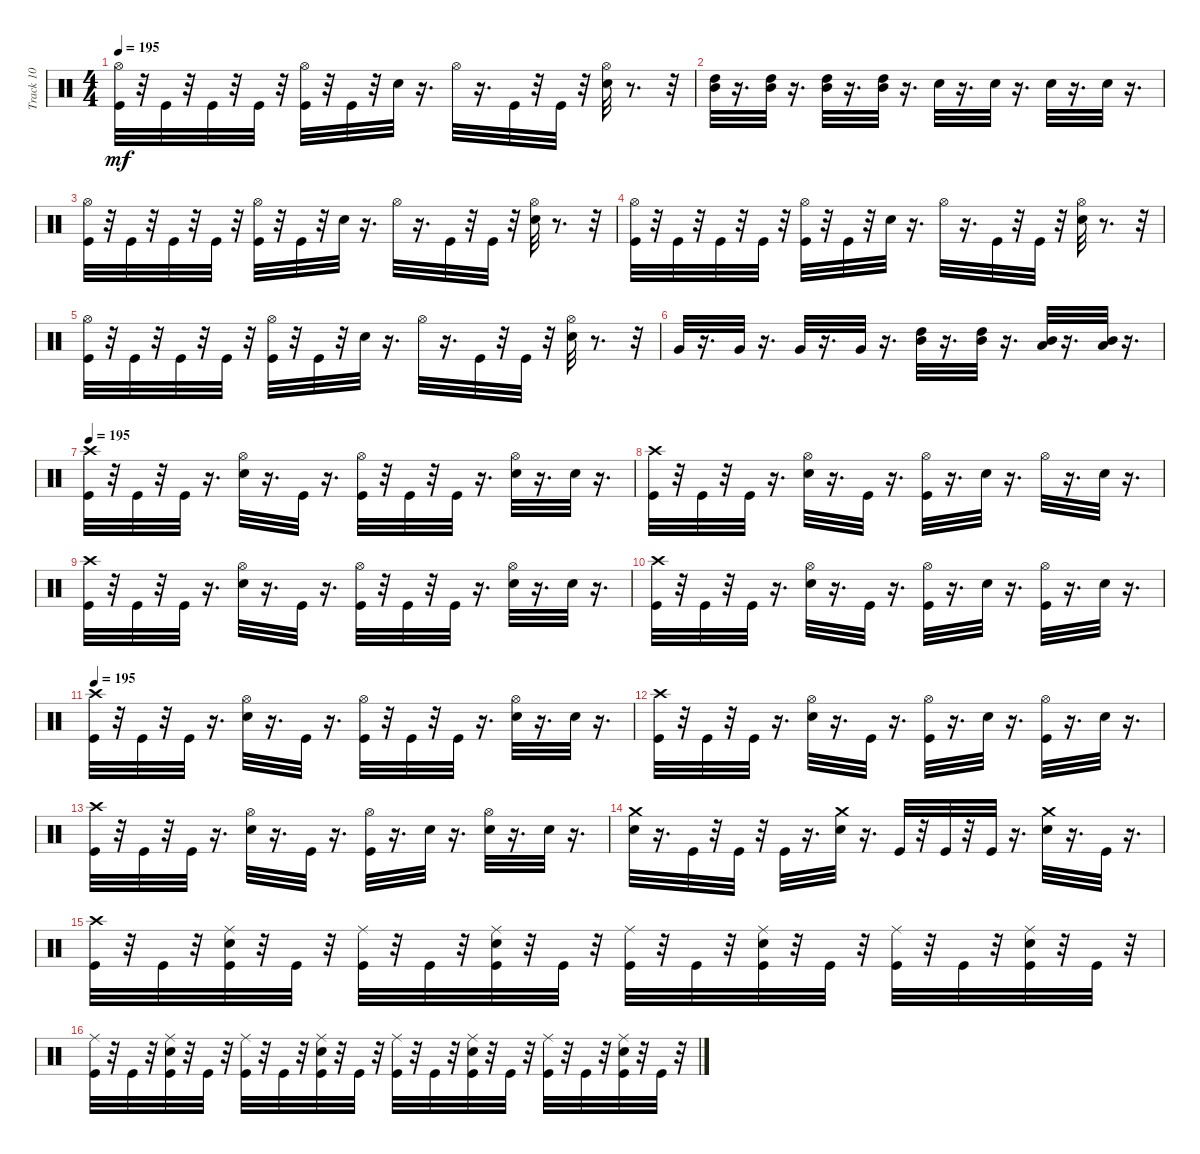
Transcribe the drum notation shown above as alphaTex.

\track ("Track 10" "Track 10") {instrument percussion}
\staff {score}
\articulation defaults
\ts (4 4)
\tempo 195
\clef neutral
\ks c
("Kick (hit)" "Hi-Hat (open)").32{dy mf} r.32 "Kick (hit)".32 r.32 "Kick (hit)".32 r.32 "Kick (hit)".32 r.32 ("Kick (hit)" "Hi-Hat (open)").32 r.32 "Kick (hit)".32 r.32 "Electric Snare (hit)".32 r.16{d} "Hi-Hat (open)".32 r.16{d} "Kick (hit)".32 r.32 "Kick (hit)".32 r.32 ("Electric Snare (hit)" "Hi-Hat (open)").32 r.8{d} r.32 |
("Mid Tom (hit)" "High Tom (hit)").32 r.16{d} ("Mid Tom (hit)" "High Tom (hit)").32 r.16{d} ("High Tom (hit)" "Mid Tom (hit)").32 r.16{d} ("High Tom (hit)" "Mid Tom (hit)").32 r.16{d} "Electric Snare (hit)".32 r.16{d} "Electric Snare (hit)".32 r.16{d} "Electric Snare (hit)".32 r.16{d} "Electric Snare (hit)".32 r.16{d} |
("Kick (hit)" "Hi-Hat (open)").32 r.32 "Kick (hit)".32 r.32 "Kick (hit)".32 r.32 "Kick (hit)".32 r.32 ("Kick (hit)" "Hi-Hat (open)").32 r.32 "Kick (hit)".32 r.32 "Electric Snare (hit)".32 r.16{d} "Hi-Hat (open)".32 r.16{d} "Kick (hit)".32 r.32 "Kick (hit)".32 r.32 ("Hi-Hat (open)" "Electric Snare (hit)").32 r.8{d} r.32 |
("Kick (hit)" "Hi-Hat (open)").32 r.32 "Kick (hit)".32 r.32 "Kick (hit)".32 r.32 "Kick (hit)".32 r.32 ("Kick (hit)" "Hi-Hat (open)").32 r.32 "Kick (hit)".32 r.32 "Electric Snare (hit)".32 r.16{d} "Hi-Hat (open)".32 r.16{d} "Kick (hit)".32 r.32 "Kick (hit)".32 r.32 ("Electric Snare (hit)" "Hi-Hat (open)").32 r.8{d} r.32 |
("Kick (hit)" "Hi-Hat (open)").32 r.32 "Kick (hit)".32 r.32 "Kick (hit)".32 r.32 "Kick (hit)".32 r.32 ("Kick (hit)" "Hi-Hat (open)").32 r.32 "Kick (hit)".32 r.32 "Electric Snare (hit)".32 r.16{d} "Hi-Hat (open)".32 r.16{d} "Kick (hit)".32 r.32 "Kick (hit)".32 r.32 ("Electric Snare (hit)" "Hi-Hat (open)").32 r.8{d} r.32 |
"Very Low Tom (hit)".32 r.16{d} "Very Low Tom (hit)".32 r.16{d} "Very Low Tom (hit)".32 r.16{d} "Very Low Tom (hit)".32 r.16{d} ("Mid Tom (hit)" "High Tom (hit)").32 r.16{d} ("Mid Tom (hit)" "High Tom (hit)").32 r.16{d} ("Low Tom (hit)" "Mid Tom (hit)").32 r.16{d} ("Low Tom (hit)" "Mid Tom (hit)").32 r.16{d} |
\tempo 195
("Kick (hit)" "Crash high (hit)").32 r.32 "Kick (hit)".32 r.32 "Kick (hit)".32 r.16{d} ("Hi-Hat (open)" "Electric Snare (hit)").32 r.16{d} "Kick (hit)".32 r.16{d} ("Kick (hit)" "Hi-Hat (open)").32 r.32 "Kick (hit)".32 r.32 "Kick (hit)".32 r.16{d} ("Hi-Hat (open)" "Electric Snare (hit)").32 r.16{d} "Electric Snare (hit)".32 r.16{d} |
("Crash high (hit)" "Kick (hit)").32 r.32 "Kick (hit)".32 r.32 "Kick (hit)".32 r.16{d} ("Electric Snare (hit)" "Hi-Hat (open)").32 r.16{d} "Kick (hit)".32 r.16{d} ("Kick (hit)" "Hi-Hat (open)").32 r.16{d} "Electric Snare (hit)".32 r.16{d} "Hi-Hat (open)".32 r.16{d} "Electric Snare (hit)".32 r.16{d} |
("Crash high (hit)" "Kick (hit)").32 r.32 "Kick (hit)".32 r.32 "Kick (hit)".32 r.16{d} ("Electric Snare (hit)" "Hi-Hat (open)").32 r.16{d} "Kick (hit)".32 r.16{d} ("Kick (hit)" "Hi-Hat (open)").32 r.32 "Kick (hit)".32 r.32 "Kick (hit)".32 r.16{d} ("Electric Snare (hit)" "Hi-Hat (open)").32 r.16{d} "Electric Snare (hit)".32 r.16{d} |
("Crash high (hit)" "Kick (hit)").32 r.32 "Kick (hit)".32 r.32 "Kick (hit)".32 r.16{d} ("Electric Snare (hit)" "Hi-Hat (open)").32 r.16{d} "Kick (hit)".32 r.16{d} ("Kick (hit)" "Hi-Hat (open)").32 r.16{d} "Electric Snare (hit)".32 r.16{d} ("Kick (hit)" "Hi-Hat (open)").32 r.16{d} "Electric Snare (hit)".32 r.16{d} |
\tempo 195
("Crash high (hit)" "Kick (hit)").32 r.32 "Kick (hit)".32 r.32 "Kick (hit)".32 r.16{d} ("Electric Snare (hit)" "Hi-Hat (open)").32 r.16{d} "Kick (hit)".32 r.16{d} ("Kick (hit)" "Hi-Hat (open)").32 r.32 "Kick (hit)".32 r.32 "Kick (hit)".32 r.16{d} ("Electric Snare (hit)" "Hi-Hat (open)").32 r.16{d} "Electric Snare (hit)".32 r.16{d} |
("Crash high (hit)" "Kick (hit)").32 r.32 "Kick (hit)".32 r.32 "Kick (hit)".32 r.16{d} ("Electric Snare (hit)" "Hi-Hat (open)").32 r.16{d} "Kick (hit)".32 r.16{d} ("Kick (hit)" "Hi-Hat (open)").32 r.16{d} "Electric Snare (hit)".32 r.16{d} ("Kick (hit)" "Hi-Hat (open)").32 r.16{d} "Electric Snare (hit)".32 r.16{d} |
("Crash high (hit)" "Kick (hit)").32 r.32 "Kick (hit)".32 r.32 "Kick (hit)".32 r.16{d} ("Electric Snare (hit)" "Hi-Hat (open)").32 r.16{d} "Kick (hit)".32 r.16{d} ("Kick (hit)" "Hi-Hat (open)").32 r.16{d} "Electric Snare (hit)".32 r.16{d} ("Electric Snare (hit)" "Hi-Hat (open)").32 r.16{d} "Electric Snare (hit)".32 r.16{d} |
("Crash medium (hit)" "Electric Snare (hit)").32 r.16{d} "Kick (hit)".32 r.32 "Kick (hit)".32 r.32 "Kick (hit)".32 r.16{d} ("Crash medium (hit)" "Electric Snare (hit)").32 r.16{d} "Kick (hit)".32 r.32 "Kick (hit)".32 r.32 "Kick (hit)".32 r.16{d} ("Crash medium (hit)" "Electric Snare (hit)").32 r.16{d} "Kick (hit)".32 r.16{d} |
("Crash high (hit)" "Kick (hit)").32 r.32 "Kick (hit)".32 r.32 ("Electric Snare (hit)" "Kick (hit)" "Ride (middle)").32 r.32 "Kick (hit)".32 r.32 ("Ride (middle)" "Kick (hit)").32 r.32 "Kick (hit)".32 r.32 ("Ride (middle)" "Electric Snare (hit)" "Kick (hit)").32 r.32 "Kick (hit)".32 r.32 ("Ride (middle)" "Kick (hit)").32 r.32 "Kick (hit)".32 r.32 ("Ride (middle)" "Kick (hit)" "Electric Snare (hit)").32 r.32 "Kick (hit)".32 r.32 ("Ride (middle)" "Kick (hit)").32 r.32 "Kick (hit)".32 r.32 ("Ride (middle)" "Electric Snare (hit)" "Kick (hit)").32 r.32 "Kick (hit)".32 r.32 |
("Ride (middle)" "Kick (hit)").32 r.32 "Kick (hit)".32 r.32 ("Electric Snare (hit)" "Kick (hit)" "Ride (middle)").32 r.32 "Kick (hit)".32 r.32 ("Ride (middle)" "Kick (hit)").32 r.32 "Kick (hit)".32 r.32 ("Ride (middle)" "Electric Snare (hit)" "Kick (hit)").32 r.32 "Kick (hit)".32 r.32 ("Ride (middle)" "Kick (hit)").32 r.32 "Kick (hit)".32 r.32 ("Ride (middle)" "Kick (hit)" "Electric Snare (hit)").32 r.32 "Kick (hit)".32 r.32 ("Ride (middle)" "Kick (hit)").32 r.32 "Kick (hit)".32 r.32 ("Ride (middle)" "Electric Snare (hit)" "Kick (hit)").32 r.32 "Kick (hit)".32 r.32
